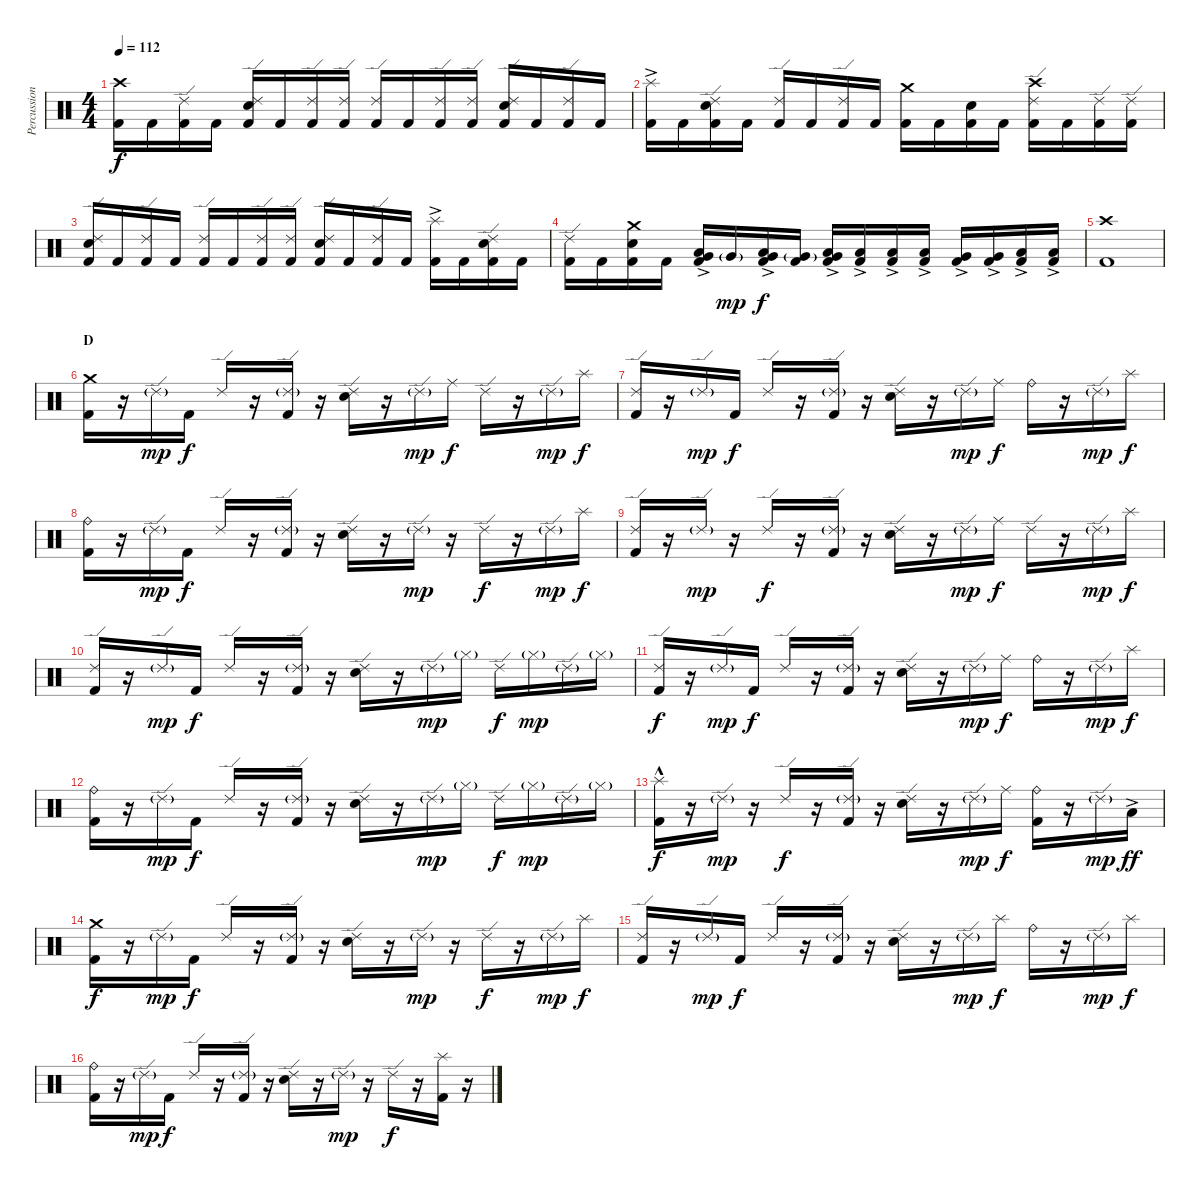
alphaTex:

\track ("Percussion" "Percussion") {instrument percussion}
\staff {score}
\articulation defaults
\ts (4 4)
\tempo 112
\clef neutral
\ks c
("Crash high (hit)" "Kick (hit) 2").16{dy f} "Kick (hit) 2".16 ("Ride (edge) 2" "Kick (hit) 2").16 "Kick (hit) 2".16 ("Ride (edge) 2" "Electric Snare (hit)" "Kick (hit) 2").16 "Kick (hit) 2".16 ("Ride (edge) 2" "Kick (hit) 2").16 ("Ride (edge) 2" "Kick (hit) 2").16 ("Ride (edge) 2" "Kick (hit) 2").16 "Kick (hit) 2".16 ("Ride (edge) 2" "Kick (hit) 2").16 ("Ride (edge) 2" "Kick (hit) 2").16 ("Ride (edge) 2" "Electric Snare (hit)" "Kick (hit) 2").16 "Kick (hit) 2".16 ("Ride (edge) 2" "Kick (hit) 2").16 "Kick (hit) 2".16 |
("Splash (hit)"{ac} "Kick (hit) 2").16 "Kick (hit) 2".16 ("Ride (edge) 2" "Electric Snare (hit)" "Kick (hit) 2").16 "Kick (hit) 2".16 ("Ride (edge) 2" "Kick (hit) 2").16 "Kick (hit) 2".16 ("Ride (edge) 2" "Kick (hit) 2").16 "Kick (hit) 2".16 ("Crash medium (hit)" "Kick (hit) 2").16 "Kick (hit) 2".16 ("Electric Snare (hit)" "Kick (hit) 2").16 "Kick (hit) 2".16 ("Crash high (hit)" "Ride (edge) 2" "Kick (hit) 2").16 "Kick (hit) 2".16 ("Ride (edge) 2" "Kick (hit) 2").16 ("Ride (edge) 2" "Kick (hit) 2").16 |
("Ride (edge) 2" "Electric Snare (hit)" "Kick (hit) 2").16 "Kick (hit) 2".16 ("Ride (edge) 2" "Kick (hit) 2").16 "Kick (hit) 2".16 ("Ride (edge) 2" "Kick (hit) 2").16 "Kick (hit) 2".16 ("Ride (edge) 2" "Kick (hit) 2").16 ("Ride (edge) 2" "Kick (hit) 2").16 ("Ride (edge) 2" "Electric Snare (hit)" "Kick (hit) 2").16 "Kick (hit) 2".16 ("Ride (edge) 2" "Kick (hit) 2").16 "Kick (hit) 2".16 ("Splash (hit)"{ac} "Kick (hit) 2").16 "Kick (hit) 2".16 ("Ride (edge) 2" "Electric Snare (hit)" "Kick (hit) 2").16 "Kick (hit) 2".16 |
("Ride (edge) 2" "Kick (hit) 2").16 "Kick (hit) 2".16 ("Crash medium (hit)" "Electric Snare (hit)" "Kick (hit) 2").16 "Kick (hit) 2".16 ("Low Tom (hit)"{ac} "Very Low Tom (hit)"{ac} "Kick (hit) 2").16 "Very Low Tom (hit)"{g}.16{dy mp} ("Low Tom (hit)"{ac} "Very Low Tom (hit)"{ac} "Kick (hit) 2").16{dy f} ("Very Low Tom (hit)"{g} "Kick (hit) 2").16 ("Low Tom (hit)"{ac} "Very Low Tom (hit)"{ac} "Kick (hit) 2").16 ("Low Tom (hit)"{ac} "Kick (hit) 2").16 ("Low Tom (hit)"{ac} "Kick (hit) 2").16 ("Low Tom (hit)"{ac} "Kick (hit) 2").16 ("Very Low Tom (hit)"{ac} "Kick (hit) 2").16 ("Very Low Tom (hit)"{ac} "Kick (hit) 2").16 ("Low Floor Tom (hit)"{ac} "Kick (hit) 2").16 ("Low Floor Tom (hit)"{ac} "Kick (hit) 2").16 |
("Crash high (hit)" "Kick (hit) 2").1 |
\section ("" "D")
("Crash medium (hit)" "Kick (hit) 2").16 r.16 "Ride (edge) 2"{g}.16{dy mp} "Kick (hit) 2".16{dy f} "Ride (edge) 2".16 r.16 ("Ride (edge) 2"{g} "Kick (hit) 2").16 r.16 ("Ride (edge) 2" "Electric Snare (hit)").16 r.16 "Ride (edge) 2"{g}.16{dy mp} "Ride (middle)".16{dy f} "Ride (edge) 2".16 r.16 "Ride (edge) 2"{g}.16{dy mp} "Splash (hit)".16{dy f} |
("Ride (edge) 2" "Kick (hit) 2").16 r.16 "Ride (edge) 2"{g}.16{dy mp} "Kick (hit) 2".16{dy f} "Ride (edge) 2".16 r.16 ("Ride (edge) 2"{g} "Kick (hit) 2").16 r.16 ("Ride (edge) 2" "Electric Snare (hit)").16 r.16 "Ride (edge) 2"{g}.16{dy mp} "Ride (middle)".16{dy f} "Ride (bell)".16 r.16 "Ride (edge) 2"{g}.16{dy mp} "Splash (hit)".16{dy f} |
("Ride (bell)" "Kick (hit) 2").16 r.16 "Ride (edge) 2"{g}.16{dy mp} "Kick (hit) 2".16{dy f} "Ride (edge) 2".16 r.16 ("Ride (edge) 2"{g} "Kick (hit) 2").16 r.16 ("Ride (edge) 2" "Electric Snare (hit)").16 r.16 "Ride (edge) 2"{g}.16{dy mp} r.16 "Ride (edge) 2".16{dy f} r.16 "Ride (edge) 2"{g}.16{dy mp} "Splash (hit)".16{dy f} |
("Ride (edge) 2" "Kick (hit) 2").16 r.16 "Ride (edge) 2"{g}.16{dy mp} r.16 "Ride (edge) 2".16{dy f} r.16 ("Ride (edge) 2"{g} "Kick (hit) 2").16 r.16 ("Ride (edge) 2" "Electric Snare (hit)").16 r.16 "Ride (edge) 2"{g}.16{dy mp} "Ride (middle)".16{dy f} "Ride (edge) 2".16 r.16 "Ride (edge) 2"{g}.16{dy mp} "Splash (hit)".16{dy f} |
("Ride (edge) 2" "Kick (hit) 2").16 r.16 "Ride (edge) 2"{g}.16{dy mp} "Kick (hit) 2".16{dy f} "Ride (edge) 2".16 r.16 ("Ride (edge) 2"{g} "Kick (hit) 2").16 r.16 ("Ride (edge) 2" "Electric Snare (hit)").16 r.16 "Ride (edge) 2"{g}.16{dy mp} "Hi-Hat (closed)"{g}.16 "Ride (edge) 2".16{dy f} "Hi-Hat (closed)"{g}.16{dy mp} "Ride (edge) 2"{g}.16 "Hi-Hat (closed)"{g}.16 |
("Ride (edge) 2" "Kick (hit) 2").16{dy f} r.16 "Ride (edge) 2"{g}.16{dy mp} "Kick (hit) 2".16{dy f} "Ride (edge) 2".16 r.16 ("Ride (edge) 2"{g} "Kick (hit) 2").16 r.16 ("Ride (edge) 2" "Electric Snare (hit)").16 r.16 "Ride (edge) 2"{g}.16{dy mp} "Ride (middle)".16{dy f} "Ride (bell)".16 r.16 "Ride (edge) 2"{g}.16{dy mp} "Splash (hit)".16{dy f} |
("Ride (bell)" "Kick (hit) 2").16 r.16 "Ride (edge) 2"{g}.16{dy mp} "Kick (hit) 2".16{dy f} "Ride (edge) 2".16 r.16 ("Ride (edge) 2"{g} "Kick (hit) 2").16 r.16 ("Ride (edge) 2" "Electric Snare (hit)").16 r.16 "Ride (edge) 2"{g}.16{dy mp} "Hi-Hat (closed)"{g}.16 "Ride (edge) 2".16{dy f} "Hi-Hat (closed)"{g}.16{dy mp} "Ride (edge) 2"{g}.16 "Hi-Hat (closed)"{g}.16 |
("Splash (hit)"{hac} "Kick (hit) 2").16{dy f} r.16 "Ride (edge) 2"{g}.16{dy mp} r.16 "Ride (edge) 2".16{dy f} r.16 ("Ride (edge) 2"{g} "Kick (hit) 2").16 r.16 ("Ride (edge) 2" "Electric Snare (hit)").16 r.16 "Ride (edge) 2"{g}.16{dy mp} "Ride (middle)".16{dy f} ("Ride (bell)" "Kick (hit) 2").16 r.16 "Ride (edge) 2"{g}.16{dy mp} "Low Tom (hit)"{ac}.16{dy ff} |
("Crash medium (hit)" "Kick (hit) 2").16{dy f} r.16 "Ride (edge) 2"{g}.16{dy mp} "Kick (hit) 2".16{dy f} "Ride (edge) 2".16 r.16 ("Ride (edge) 2"{g} "Kick (hit) 2").16 r.16 ("Ride (edge) 2" "Electric Snare (hit)").16 r.16 "Ride (edge) 2"{g}.16{dy mp} r.16 "Ride (edge) 2".16{dy f} r.16 "Ride (edge) 2"{g}.16{dy mp} "Splash (hit)".16{dy f} |
("Ride (edge) 2" "Kick (hit) 2").16 r.16 "Ride (edge) 2"{g}.16{dy mp} "Kick (hit) 2".16{dy f} "Ride (edge) 2".16 r.16 ("Ride (edge) 2"{g} "Kick (hit) 2").16 r.16 ("Ride (edge) 2" "Electric Snare (hit)").16 r.16 "Ride (edge) 2"{g}.16{dy mp} "Splash (hit)".16{dy f} "Ride (bell)".16 r.16 "Ride (edge) 2"{g}.16{dy mp} "Splash (hit)".16{dy f} |
("Ride (bell)" "Kick (hit) 2").16 r.16 "Ride (edge) 2"{g}.16{dy mp} "Kick (hit) 2".16{dy f} "Ride (edge) 2".16 r.16 ("Ride (edge) 2"{g} "Kick (hit) 2").16 r.16 ("Ride (edge) 2" "Electric Snare (hit)").16 r.16 "Ride (edge) 2"{g}.16{dy mp} r.16 "Ride (edge) 2".16{dy f} r.16 ("Splash (hit)" "Kick (hit) 2").16 r.16
